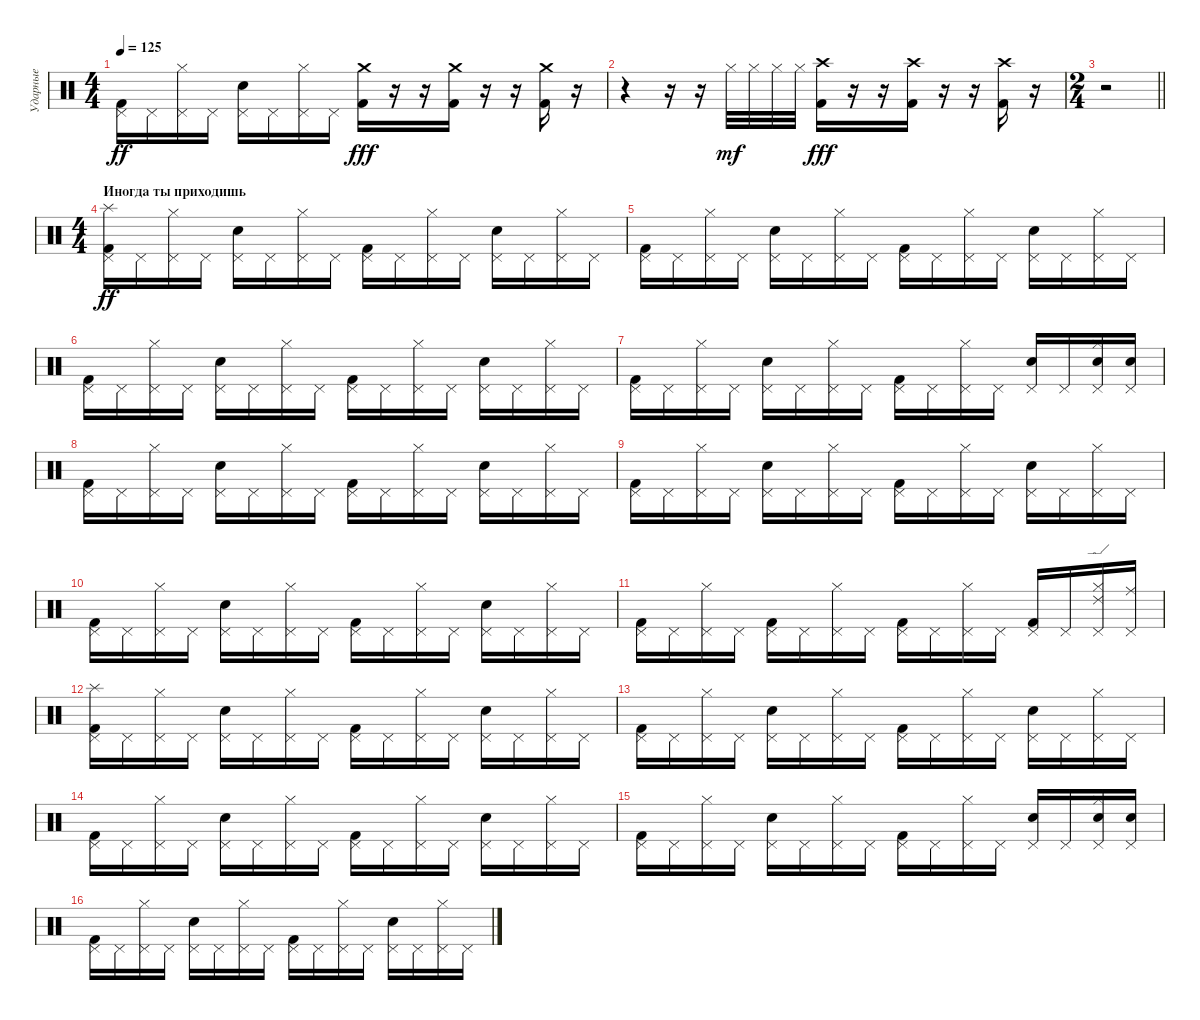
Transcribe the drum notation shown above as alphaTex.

\track ("Ударные" "Ударные") {instrument percussion}
\staff {score}
\articulation defaults
\ts (4 4)
\tempo 125
\clef neutral
\ks c
("Kick (hit) 2" "Pedal Hi-Hat (hit)").16{dy ff} "Pedal Hi-Hat (hit)".16 ("Hi-Hat (closed)" "Pedal Hi-Hat (hit)").16 "Pedal Hi-Hat (hit)".16 ("Snare (hit) 2" "Pedal Hi-Hat (hit)").16 "Pedal Hi-Hat (hit)".16 ("Hi-Hat (closed)" "Pedal Hi-Hat (hit)").16 "Pedal Hi-Hat (hit)".16 ("Crash medium (hit)" "Kick (hit) 2").16{dy fff} r.16 r.16 ("Crash medium (hit)" "Kick (hit) 2").16 r.16 r.16 ("Crash medium (hit)" "Kick (hit) 2").16 r.16 |
r.4 r.16 r.16 "Hi-Hat (closed)".32{dy mf} "Hi-Hat (closed)".32 "Hi-Hat (closed)".32 "Hi-Hat (closed)".32 ("Crash high (hit)" "Kick (hit) 2").16{dy fff} r.16 r.16 ("Crash high (hit)" "Kick (hit) 2").16 r.16 r.16 ("Crash high (hit)" "Kick (hit) 2").16 r.16 |
\ts (2 4)
\barLineRight lightlight
r.2 |
\ts (4 4)
\section ("" "Иногда ты приходишь")
("Splash (hit)" "Kick (hit) 2" "Pedal Hi-Hat (hit)").16{dy ff} "Pedal Hi-Hat (hit)".16 ("Hi-Hat (closed)" "Pedal Hi-Hat (hit)").16 "Pedal Hi-Hat (hit)".16 ("Snare (hit) 2" "Pedal Hi-Hat (hit)").16 "Pedal Hi-Hat (hit)".16 ("Hi-Hat (closed)" "Pedal Hi-Hat (hit)").16 "Pedal Hi-Hat (hit)".16 ("Kick (hit) 2" "Pedal Hi-Hat (hit)").16 "Pedal Hi-Hat (hit)".16 ("Hi-Hat (closed)" "Pedal Hi-Hat (hit)").16 "Pedal Hi-Hat (hit)".16 ("Snare (hit) 2" "Pedal Hi-Hat (hit)").16 "Pedal Hi-Hat (hit)".16 ("Hi-Hat (closed)" "Pedal Hi-Hat (hit)").16 "Pedal Hi-Hat (hit)".16 |
("Kick (hit) 2" "Pedal Hi-Hat (hit)").16 "Pedal Hi-Hat (hit)".16 ("Hi-Hat (closed)" "Pedal Hi-Hat (hit)").16 "Pedal Hi-Hat (hit)".16 ("Snare (hit) 2" "Pedal Hi-Hat (hit)").16 "Pedal Hi-Hat (hit)".16 ("Hi-Hat (closed)" "Pedal Hi-Hat (hit)").16 "Pedal Hi-Hat (hit)".16 ("Kick (hit) 2" "Pedal Hi-Hat (hit)").16 "Pedal Hi-Hat (hit)".16 ("Hi-Hat (closed)" "Pedal Hi-Hat (hit)").16 "Pedal Hi-Hat (hit)".16 ("Snare (hit) 2" "Pedal Hi-Hat (hit)").16 "Pedal Hi-Hat (hit)".16 ("Hi-Hat (closed)" "Pedal Hi-Hat (hit)").16 "Pedal Hi-Hat (hit)".16 |
("Kick (hit) 2" "Pedal Hi-Hat (hit)").16 "Pedal Hi-Hat (hit)".16 ("Hi-Hat (closed)" "Pedal Hi-Hat (hit)").16 "Pedal Hi-Hat (hit)".16 ("Snare (hit) 2" "Pedal Hi-Hat (hit)").16 "Pedal Hi-Hat (hit)".16 ("Hi-Hat (closed)" "Pedal Hi-Hat (hit)").16 "Pedal Hi-Hat (hit)".16 ("Kick (hit) 2" "Pedal Hi-Hat (hit)").16 "Pedal Hi-Hat (hit)".16 ("Hi-Hat (closed)" "Pedal Hi-Hat (hit)").16 "Pedal Hi-Hat (hit)".16 ("Snare (hit) 2" "Pedal Hi-Hat (hit)").16 "Pedal Hi-Hat (hit)".16 ("Hi-Hat (closed)" "Pedal Hi-Hat (hit)").16 "Pedal Hi-Hat (hit)".16 |
("Kick (hit) 2" "Pedal Hi-Hat (hit)").16 "Pedal Hi-Hat (hit)".16 ("Hi-Hat (closed)" "Pedal Hi-Hat (hit)").16 "Pedal Hi-Hat (hit)".16 ("Snare (hit) 2" "Pedal Hi-Hat (hit)").16 "Pedal Hi-Hat (hit)".16 ("Hi-Hat (closed)" "Pedal Hi-Hat (hit)").16 "Pedal Hi-Hat (hit)".16 ("Kick (hit) 2" "Pedal Hi-Hat (hit)").16 "Pedal Hi-Hat (hit)".16 ("Hi-Hat (closed)" "Pedal Hi-Hat (hit)").16 "Pedal Hi-Hat (hit)".16 ("Snare (hit) 2" "Pedal Hi-Hat (hit)").16 "Pedal Hi-Hat (hit)".16 ("Hi-Hat (closed)" "Snare (hit) 2" "Pedal Hi-Hat (hit)").16 ("Snare (hit) 2" "Pedal Hi-Hat (hit)").16 |
("Kick (hit) 2" "Pedal Hi-Hat (hit)").16 "Pedal Hi-Hat (hit)".16 ("Hi-Hat (closed)" "Pedal Hi-Hat (hit)").16 "Pedal Hi-Hat (hit)".16 ("Snare (hit) 2" "Pedal Hi-Hat (hit)").16 "Pedal Hi-Hat (hit)".16 ("Hi-Hat (closed)" "Pedal Hi-Hat (hit)").16 "Pedal Hi-Hat (hit)".16 ("Kick (hit) 2" "Pedal Hi-Hat (hit)").16 "Pedal Hi-Hat (hit)".16 ("Hi-Hat (closed)" "Pedal Hi-Hat (hit)").16 "Pedal Hi-Hat (hit)".16 ("Snare (hit) 2" "Pedal Hi-Hat (hit)").16 "Pedal Hi-Hat (hit)".16 ("Hi-Hat (closed)" "Pedal Hi-Hat (hit)").16 "Pedal Hi-Hat (hit)".16 |
("Kick (hit) 2" "Pedal Hi-Hat (hit)").16 "Pedal Hi-Hat (hit)".16 ("Hi-Hat (closed)" "Pedal Hi-Hat (hit)").16 "Pedal Hi-Hat (hit)".16 ("Snare (hit) 2" "Pedal Hi-Hat (hit)").16 "Pedal Hi-Hat (hit)".16 ("Hi-Hat (closed)" "Pedal Hi-Hat (hit)").16 "Pedal Hi-Hat (hit)".16 ("Kick (hit) 2" "Pedal Hi-Hat (hit)").16 "Pedal Hi-Hat (hit)".16 ("Hi-Hat (closed)" "Pedal Hi-Hat (hit)").16 "Pedal Hi-Hat (hit)".16 ("Snare (hit) 2" "Pedal Hi-Hat (hit)").16 "Pedal Hi-Hat (hit)".16 ("Hi-Hat (closed)" "Pedal Hi-Hat (hit)").16 "Pedal Hi-Hat (hit)".16 |
("Kick (hit) 2" "Pedal Hi-Hat (hit)").16 "Pedal Hi-Hat (hit)".16 ("Hi-Hat (closed)" "Pedal Hi-Hat (hit)").16 "Pedal Hi-Hat (hit)".16 ("Snare (hit) 2" "Pedal Hi-Hat (hit)").16 "Pedal Hi-Hat (hit)".16 ("Hi-Hat (closed)" "Pedal Hi-Hat (hit)").16 "Pedal Hi-Hat (hit)".16 ("Kick (hit) 2" "Pedal Hi-Hat (hit)").16 "Pedal Hi-Hat (hit)".16 ("Hi-Hat (closed)" "Pedal Hi-Hat (hit)").16 "Pedal Hi-Hat (hit)".16 ("Snare (hit) 2" "Pedal Hi-Hat (hit)").16 "Pedal Hi-Hat (hit)".16 ("Hi-Hat (closed)" "Pedal Hi-Hat (hit)").16 "Pedal Hi-Hat (hit)".16 |
("Kick (hit) 2" "Pedal Hi-Hat (hit)").16 "Pedal Hi-Hat (hit)".16 ("Hi-Hat (closed)" "Pedal Hi-Hat (hit)").16 "Pedal Hi-Hat (hit)".16 ("Kick (hit) 2" "Pedal Hi-Hat (hit)").16 "Pedal Hi-Hat (hit)".16 ("Hi-Hat (closed)" "Pedal Hi-Hat (hit)").16 "Pedal Hi-Hat (hit)".16 ("Kick (hit) 2" "Pedal Hi-Hat (hit)").16 "Pedal Hi-Hat (hit)".16 ("Hi-Hat (closed)" "Pedal Hi-Hat (hit)").16 "Pedal Hi-Hat (hit)".16 ("Kick (hit) 2" "Pedal Hi-Hat (hit)").16 "Pedal Hi-Hat (hit)".16 ("Hi-Hat (closed)" "Ride (edge) 2" "Pedal Hi-Hat (hit)").16 ("Ride (middle)" "Pedal Hi-Hat (hit)").16 |
("Splash (hit)" "Kick (hit) 2" "Pedal Hi-Hat (hit)").16 "Pedal Hi-Hat (hit)".16 ("Hi-Hat (closed)" "Pedal Hi-Hat (hit)").16 "Pedal Hi-Hat (hit)".16 ("Snare (hit) 2" "Pedal Hi-Hat (hit)").16 "Pedal Hi-Hat (hit)".16 ("Hi-Hat (closed)" "Pedal Hi-Hat (hit)").16 "Pedal Hi-Hat (hit)".16 ("Kick (hit) 2" "Pedal Hi-Hat (hit)").16 "Pedal Hi-Hat (hit)".16 ("Hi-Hat (closed)" "Pedal Hi-Hat (hit)").16 "Pedal Hi-Hat (hit)".16 ("Snare (hit) 2" "Pedal Hi-Hat (hit)").16 "Pedal Hi-Hat (hit)".16 ("Hi-Hat (closed)" "Pedal Hi-Hat (hit)").16 "Pedal Hi-Hat (hit)".16 |
("Kick (hit) 2" "Pedal Hi-Hat (hit)").16 "Pedal Hi-Hat (hit)".16 ("Hi-Hat (closed)" "Pedal Hi-Hat (hit)").16 "Pedal Hi-Hat (hit)".16 ("Snare (hit) 2" "Pedal Hi-Hat (hit)").16 "Pedal Hi-Hat (hit)".16 ("Hi-Hat (closed)" "Pedal Hi-Hat (hit)").16 "Pedal Hi-Hat (hit)".16 ("Kick (hit) 2" "Pedal Hi-Hat (hit)").16 "Pedal Hi-Hat (hit)".16 ("Hi-Hat (closed)" "Pedal Hi-Hat (hit)").16 "Pedal Hi-Hat (hit)".16 ("Snare (hit) 2" "Pedal Hi-Hat (hit)").16 "Pedal Hi-Hat (hit)".16 ("Hi-Hat (closed)" "Pedal Hi-Hat (hit)").16 "Pedal Hi-Hat (hit)".16 |
("Kick (hit) 2" "Pedal Hi-Hat (hit)").16 "Pedal Hi-Hat (hit)".16 ("Hi-Hat (closed)" "Pedal Hi-Hat (hit)").16 "Pedal Hi-Hat (hit)".16 ("Snare (hit) 2" "Pedal Hi-Hat (hit)").16 "Pedal Hi-Hat (hit)".16 ("Hi-Hat (closed)" "Pedal Hi-Hat (hit)").16 "Pedal Hi-Hat (hit)".16 ("Kick (hit) 2" "Pedal Hi-Hat (hit)").16 "Pedal Hi-Hat (hit)".16 ("Hi-Hat (closed)" "Pedal Hi-Hat (hit)").16 "Pedal Hi-Hat (hit)".16 ("Snare (hit) 2" "Pedal Hi-Hat (hit)").16 "Pedal Hi-Hat (hit)".16 ("Hi-Hat (closed)" "Pedal Hi-Hat (hit)").16 "Pedal Hi-Hat (hit)".16 |
("Kick (hit) 2" "Pedal Hi-Hat (hit)").16 "Pedal Hi-Hat (hit)".16 ("Hi-Hat (closed)" "Pedal Hi-Hat (hit)").16 "Pedal Hi-Hat (hit)".16 ("Snare (hit) 2" "Pedal Hi-Hat (hit)").16 "Pedal Hi-Hat (hit)".16 ("Hi-Hat (closed)" "Pedal Hi-Hat (hit)").16 "Pedal Hi-Hat (hit)".16 ("Kick (hit) 2" "Pedal Hi-Hat (hit)").16 "Pedal Hi-Hat (hit)".16 ("Hi-Hat (closed)" "Pedal Hi-Hat (hit)").16 "Pedal Hi-Hat (hit)".16 ("Snare (hit) 2" "Pedal Hi-Hat (hit)").16 "Pedal Hi-Hat (hit)".16 ("Hi-Hat (closed)" "Snare (hit) 2" "Pedal Hi-Hat (hit)").16 ("Snare (hit) 2" "Pedal Hi-Hat (hit)").16 |
("Kick (hit) 2" "Pedal Hi-Hat (hit)").16 "Pedal Hi-Hat (hit)".16 ("Hi-Hat (closed)" "Pedal Hi-Hat (hit)").16 "Pedal Hi-Hat (hit)".16 ("Snare (hit) 2" "Pedal Hi-Hat (hit)").16 "Pedal Hi-Hat (hit)".16 ("Hi-Hat (closed)" "Pedal Hi-Hat (hit)").16 "Pedal Hi-Hat (hit)".16 ("Kick (hit) 2" "Pedal Hi-Hat (hit)").16 "Pedal Hi-Hat (hit)".16 ("Hi-Hat (closed)" "Pedal Hi-Hat (hit)").16 "Pedal Hi-Hat (hit)".16 ("Snare (hit) 2" "Pedal Hi-Hat (hit)").16 "Pedal Hi-Hat (hit)".16 ("Hi-Hat (closed)" "Pedal Hi-Hat (hit)").16 "Pedal Hi-Hat (hit)".16
